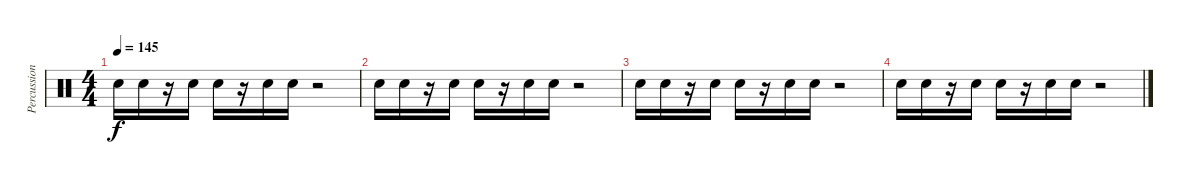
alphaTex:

\track ("Percussioni" "Percussion") {instrument percussion}
\staff {score}
\articulation defaults
\ts (4 4)
\tempo 145
\clef neutral
\ks c "Electric Snare (hit)".16{dy f} "Electric Snare (hit)".16
r.16 "Electric Snare (hit)".16 "Electric Snare (hit)".16 r.16 "Electric Snare (hit)".16 "Electric Snare (hit)".16 r.2 |
"Electric Snare (hit)".16 "Electric Snare (hit)".16 r.16 "Electric Snare (hit)".16 "Electric Snare (hit)".16 r.16 "Electric Snare (hit)".16 "Electric Snare (hit)".16 r.2 |
"Electric Snare (hit)".16 "Electric Snare (hit)".16 r.16 "Electric Snare (hit)".16 "Electric Snare (hit)".16 r.16 "Electric Snare (hit)".16 "Electric Snare (hit)".16 r.2 |
"Electric Snare (hit)".16 "Electric Snare (hit)".16 r.16 "Electric Snare (hit)".16 "Electric Snare (hit)".16 r.16 "Electric Snare (hit)".16 "Electric Snare (hit)".16 r.2
